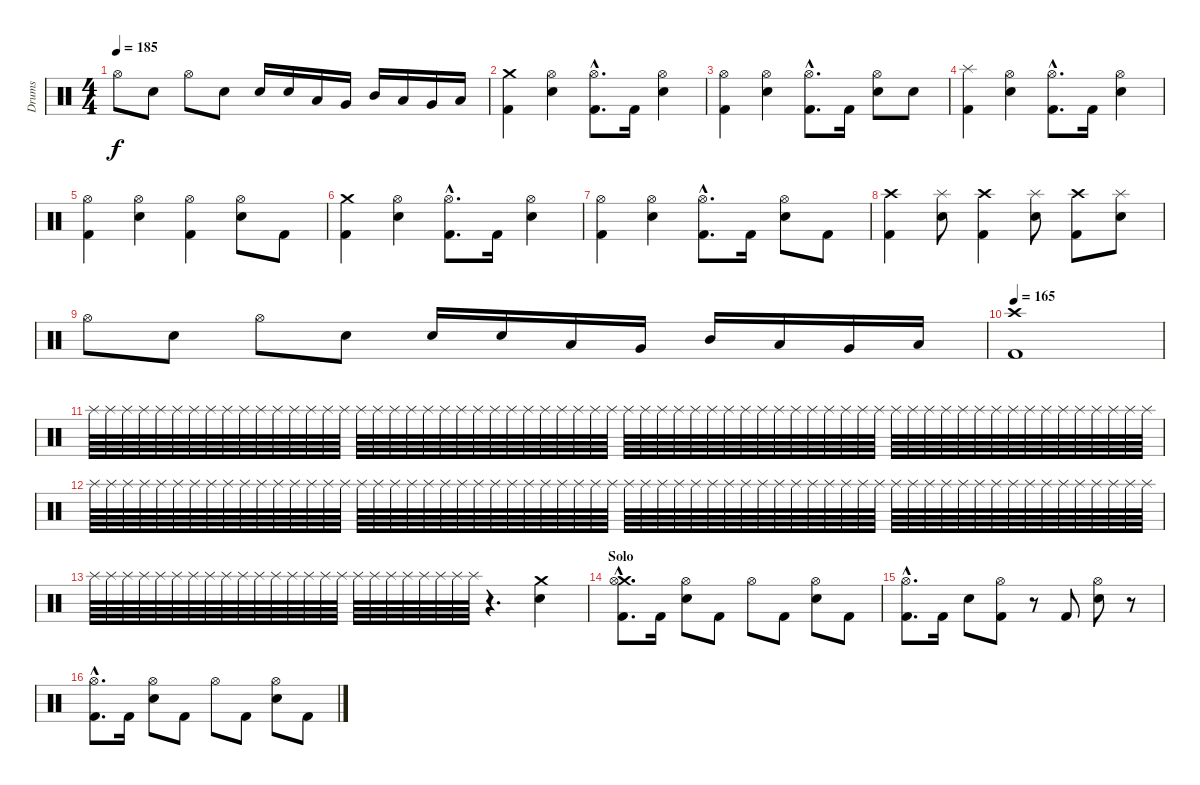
\track ("Drums" "Drums") {instrument percussion}
\staff {score}
\articulation defaults
\ts (4 4)
\tempo 185
\clef neutral
\ks c "Hi-Hat (open)".8{dy f} "Snare (hit) 2".8 "Hi-Hat (open)".8 "Snare (hit) 2".8 "Snare (hit) 2".16 "Snare (hit) 2".16 "Low Tom (hit)".16 "Very Low Tom (hit)".16 "Mid Tom (hit)".16 "Low Tom (hit)".16 "Very Low Tom (hit)".16 "Low Floor Tom (hit)".16
|
("Crash medium (hit)" "Kick (hit) 2").4 ("Hi-Hat (open)" "Snare (hit) 2").4 ("Hi-Hat (open)"{hac} "Kick (hit) 2"{hac}).8{d} "Kick (hit) 2".16 ("Hi-Hat (open)" "Snare (hit) 2").4 |
("Hi-Hat (open)" "Kick (hit) 2").4 ("Hi-Hat (open)" "Snare (hit) 2").4 ("Hi-Hat (open)"{hac} "Kick (hit) 2"{hac}).8{d} "Kick (hit) 2".16 ("Hi-Hat (open)" "Snare (hit) 2").8 "Snare (hit) 2".8 |
("Splash (hit)" "Kick (hit) 2").4 ("Hi-Hat (open)" "Snare (hit) 2").4 ("Hi-Hat (open)"{hac} "Kick (hit) 2"{hac}).8{d} "Kick (hit) 2".16 ("Hi-Hat (open)" "Snare (hit) 2").4 |
("Hi-Hat (open)" "Kick (hit) 2").4 ("Hi-Hat (open)" "Snare (hit) 2").4 ("Hi-Hat (open)" "Kick (hit) 2").4 ("Hi-Hat (open)" "Snare (hit) 2").8 "Kick (hit) 2".8 |
("Crash medium (hit)" "Kick (hit) 2").4 ("Hi-Hat (open)" "Snare (hit) 2").4 ("Hi-Hat (open)"{hac} "Kick (hit) 2"{hac}).8{d} "Kick (hit) 2".16 ("Hi-Hat (open)" "Snare (hit) 2").4 |
("Hi-Hat (open)" "Kick (hit) 2").4 ("Hi-Hat (open)" "Snare (hit) 2").4 ("Hi-Hat (open)"{hac} "Kick (hit) 2"{hac}).8{d} "Kick (hit) 2".16 ("Hi-Hat (open)" "Snare (hit) 2").8 "Kick (hit) 2".8 |
("Crash high (hit)" "Kick (hit) 2").4 ("Splash (hit)" "Snare (hit) 2").8 ("Crash high (hit)" "Kick (hit) 2").4 ("Splash (hit)" "Snare (hit) 2").8 ("Crash high (hit)" "Kick (hit) 2").8 ("Splash (hit)" "Snare (hit) 2").8 |
"Hi-Hat (open)".8 "Snare (hit) 2".8 "Hi-Hat (open)".8 "Snare (hit) 2".8 "Snare (hit) 2".16 "Snare (hit) 2".16 "Low Tom (hit)".16 "Very Low Tom (hit)".16 "Mid Tom (hit)".16 "Low Tom (hit)".16 "Very Low Tom (hit)".16 "Low Floor Tom (hit)".16 |
\tempo 165
("Crash high (hit)" "Kick (hit) 2").1 |
"Splash (hit)".64{volume 0} "Splash (hit)".64{volume 16} "Splash (hit)".64 "Splash (hit)".64 "Splash (hit)".64 "Splash (hit)".64 "Splash (hit)".64 "Splash (hit)".64 "Splash (hit)".64 "Splash (hit)".64 "Splash (hit)".64 "Splash (hit)".64 "Splash (hit)".64 "Splash (hit)".64 "Splash (hit)".64 "Splash (hit)".64 "Splash (hit)".64 "Splash (hit)".64 "Splash (hit)".64 "Splash (hit)".64 "Splash (hit)".64 "Splash (hit)".64 "Splash (hit)".64 "Splash (hit)".64 "Splash (hit)".64 "Splash (hit)".64 "Splash (hit)".64 "Splash (hit)".64 "Splash (hit)".64 "Splash (hit)".64 "Splash (hit)".64 "Splash (hit)".64 "Splash (hit)".64 "Splash (hit)".64 "Splash (hit)".64 "Splash (hit)".64 "Splash (hit)".64 "Splash (hit)".64 "Splash (hit)".64 "Splash (hit)".64 "Splash (hit)".64 "Splash (hit)".64 "Splash (hit)".64 "Splash (hit)".64 "Splash (hit)".64 "Splash (hit)".64 "Splash (hit)".64 "Splash (hit)".64 "Splash (hit)".64 "Splash (hit)".64 "Splash (hit)".64 "Splash (hit)".64 "Splash (hit)".64 "Splash (hit)".64 "Splash (hit)".64 "Splash (hit)".64 "Splash (hit)".64 "Splash (hit)".64 "Splash (hit)".64 "Splash (hit)".64 "Splash (hit)".64 "Splash (hit)".64 "Splash (hit)".64 "Splash (hit)".64 |
"Splash (hit)".64 "Splash (hit)".64 "Splash (hit)".64 "Splash (hit)".64 "Splash (hit)".64 "Splash (hit)".64 "Splash (hit)".64 "Splash (hit)".64 "Splash (hit)".64 "Splash (hit)".64 "Splash (hit)".64 "Splash (hit)".64 "Splash (hit)".64 "Splash (hit)".64 "Splash (hit)".64 "Splash (hit)".64 "Splash (hit)".64 "Splash (hit)".64 "Splash (hit)".64 "Splash (hit)".64 "Splash (hit)".64 "Splash (hit)".64 "Splash (hit)".64 "Splash (hit)".64 "Splash (hit)".64 "Splash (hit)".64 "Splash (hit)".64 "Splash (hit)".64 "Splash (hit)".64 "Splash (hit)".64 "Splash (hit)".64 "Splash (hit)".64 "Splash (hit)".64 "Splash (hit)".64 "Splash (hit)".64 "Splash (hit)".64 "Splash (hit)".64 "Splash (hit)".64 "Splash (hit)".64 "Splash (hit)".64 "Splash (hit)".64 "Splash (hit)".64 "Splash (hit)".64 "Splash (hit)".64 "Splash (hit)".64 "Splash (hit)".64 "Splash (hit)".64 "Splash (hit)".64 "Splash (hit)".64 "Splash (hit)".64 "Splash (hit)".64 "Splash (hit)".64 "Splash (hit)".64 "Splash (hit)".64 "Splash (hit)".64 "Splash (hit)".64 "Splash (hit)".64 "Splash (hit)".64 "Splash (hit)".64 "Splash (hit)".64 "Splash (hit)".64 "Splash (hit)".64 "Splash (hit)".64 "Splash (hit)".64 |
"Splash (hit)".64 "Splash (hit)".64 "Splash (hit)".64 "Splash (hit)".64 "Splash (hit)".64 "Splash (hit)".64 "Splash (hit)".64 "Splash (hit)".64 "Splash (hit)".64 "Splash (hit)".64 "Splash (hit)".64 "Splash (hit)".64 "Splash (hit)".64 "Splash (hit)".64 "Splash (hit)".64 "Splash (hit)".64 "Splash (hit)".64 "Splash (hit)".64 "Splash (hit)".64 "Splash (hit)".64 "Splash (hit)".64 "Splash (hit)".64 "Splash (hit)".64 "Splash (hit)".64 r.4{d} ("Crash medium (hit)" "Snare (hit) 2").4 |
\section ("" "Solo")
("Crash medium (hit)"{hac} "Hi-Hat (open)"{hac} "Kick (hit) 2"{hac}).8{d volume 16} "Kick (hit) 2".16 ("Hi-Hat (open)" "Snare (hit) 2").8 "Kick (hit) 2".8 "Hi-Hat (open)".8 "Kick (hit) 2".8 ("Hi-Hat (open)" "Snare (hit) 2").8 "Kick (hit) 2".8 |
("Hi-Hat (open)"{hac} "Kick (hit) 2"{hac}).8{d} "Kick (hit) 2".16 "Snare (hit) 2".8 ("Hi-Hat (open)" "Kick (hit) 2").8 r.8 "Kick (hit) 2".8 ("Hi-Hat (open)" "Snare (hit) 2").8 r.8 |
("Hi-Hat (open)"{hac} "Kick (hit) 2"{hac}).8{d} "Kick (hit) 2".16 ("Hi-Hat (open)" "Snare (hit) 2").8 "Kick (hit) 2".8 "Hi-Hat (open)".8 "Kick (hit) 2".8 ("Hi-Hat (open)" "Snare (hit) 2").8 "Kick (hit) 2".8
